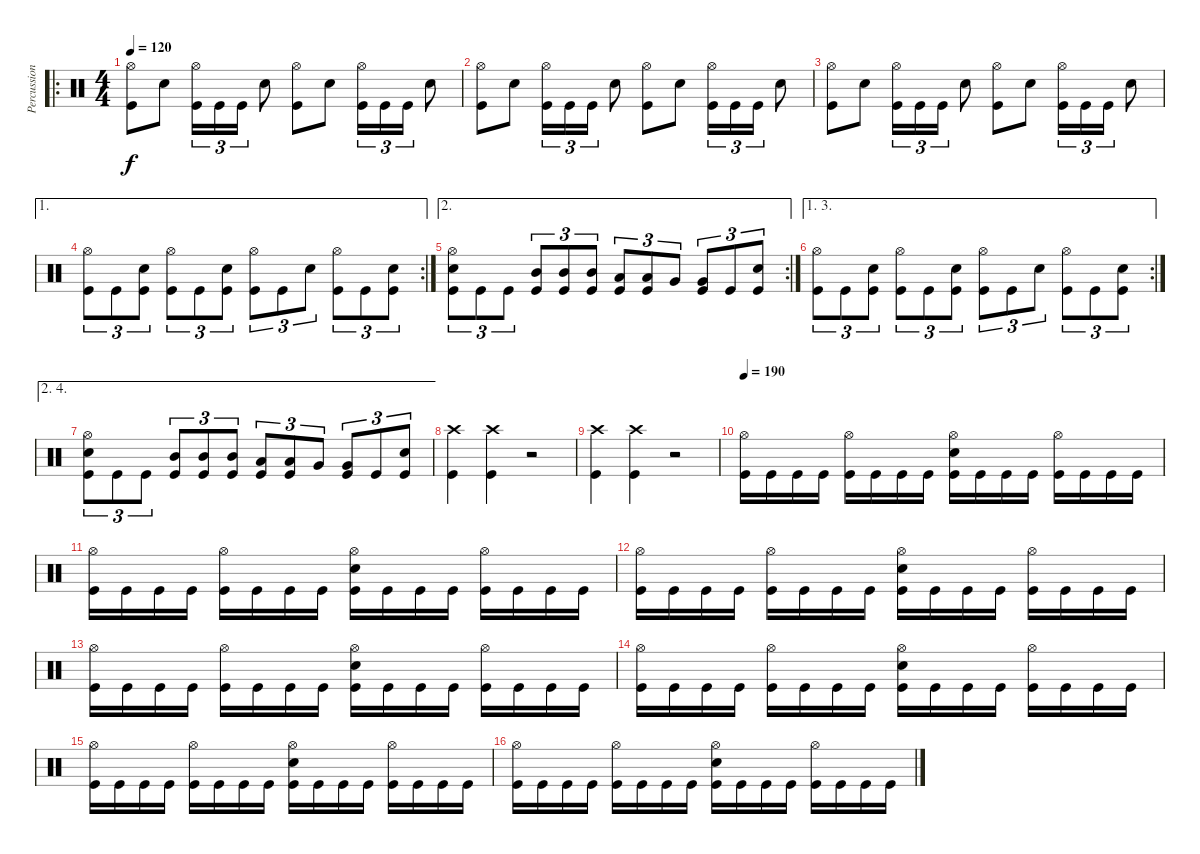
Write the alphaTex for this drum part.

\track ("Percussioni" "Percussion") {instrument percussion}
\staff {score}
\articulation defaults
\ro
\ts (4 4)
\tempo 120
\tempo 280
\tempo 120
\clef neutral
\ks c
("Hi-Hat (open)" "Kick (hit)").8{dy f} "Electric Snare (hit)".8 ("Hi-Hat (open)" "Kick (hit)").16{tu (3 2)} "Kick (hit)".16{tu (3 2)} "Kick (hit)".16{tu (3 2)} "Electric Snare (hit)".8 ("Hi-Hat (open)" "Kick (hit)").8 "Electric Snare (hit)".8 ("Hi-Hat (open)" "Kick (hit)").16{tu (3 2)} "Kick (hit)".16{tu (3 2)} "Kick (hit)".16{tu (3 2)} "Electric Snare (hit)".8 |
("Hi-Hat (open)" "Kick (hit)").8 "Electric Snare (hit)".8 ("Hi-Hat (open)" "Kick (hit)").16{tu (3 2)} "Kick (hit)".16{tu (3 2)} "Kick (hit)".16{tu (3 2)} "Electric Snare (hit)".8 ("Hi-Hat (open)" "Kick (hit)").8 "Electric Snare (hit)".8 ("Hi-Hat (open)" "Kick (hit)").16{tu (3 2)} "Kick (hit)".16{tu (3 2)} "Kick (hit)".16{tu (3 2)} "Electric Snare (hit)".8 |
("Hi-Hat (open)" "Kick (hit)").8 "Electric Snare (hit)".8 ("Hi-Hat (open)" "Kick (hit)").16{tu (3 2)} "Kick (hit)".16{tu (3 2)} "Kick (hit)".16{tu (3 2)} "Electric Snare (hit)".8 ("Hi-Hat (open)" "Kick (hit)").8 "Electric Snare (hit)".8 ("Hi-Hat (open)" "Kick (hit)").16{tu (3 2)} "Kick (hit)".16{tu (3 2)} "Kick (hit)".16{tu (3 2)} "Electric Snare (hit)".8 |
\ae 1
\rc 2
("Hi-Hat (open)" "Kick (hit)").8{tu (3 2)} "Kick (hit)".8{tu (3 2)} ("Electric Snare (hit)" "Kick (hit)").8{tu (3 2)} ("Hi-Hat (open)" "Kick (hit)").8{tu (3 2)} "Kick (hit)".8{tu (3 2)} ("Electric Snare (hit)" "Kick (hit)").8{tu (3 2)} ("Hi-Hat (open)" "Kick (hit)").8{tu (3 2)} "Kick (hit)".8{tu (3 2)} "Electric Snare (hit)".8{tu (3 2)} ("Hi-Hat (open)" "Kick (hit)").8{tu (3 2)} "Kick (hit)".8{tu (3 2)} ("Electric Snare (hit)" "Kick (hit)").8{tu (3 2)} |
\ae 2
\rc 2
("Hi-Hat (open)" "Electric Snare (hit)" "Kick (hit)").8{tu (3 2)} "Kick (hit)".8{tu (3 2)} "Kick (hit)".8{tu (3 2)} ("Mid Tom (hit)" "Kick (hit)").8{tu (3 2)} ("Mid Tom (hit)" "Kick (hit)").8{tu (3 2)} ("Mid Tom (hit)" "Kick (hit)").8{tu (3 2)} ("Low Tom (hit)" "Kick (hit)").8{tu (3 2)} ("Low Tom (hit)" "Kick (hit)").8{tu (3 2)} "Very Low Tom (hit)".8{tu (3 2)} ("Very Low Tom (hit)" "Kick (hit)").8{tu (3 2)} "Kick (hit)".8{tu (3 2)} ("Electric Snare (hit)" "Kick (hit)").8{tu (3 2)} |
\ae (1 3)
\rc 2
("Hi-Hat (open)" "Kick (hit)").8{tu (3 2)} "Kick (hit)".8{tu (3 2)} ("Electric Snare (hit)" "Kick (hit)").8{tu (3 2)} ("Hi-Hat (open)" "Kick (hit)").8{tu (3 2)} "Kick (hit)".8{tu (3 2)} ("Electric Snare (hit)" "Kick (hit)").8{tu (3 2)} ("Hi-Hat (open)" "Kick (hit)").8{tu (3 2)} "Kick (hit)".8{tu (3 2)} "Electric Snare (hit)".8{tu (3 2)} ("Hi-Hat (open)" "Kick (hit)").8{tu (3 2)} "Kick (hit)".8{tu (3 2)} ("Electric Snare (hit)" "Kick (hit)").8{tu (3 2)} |
\ae (2 4)
("Hi-Hat (open)" "Electric Snare (hit)" "Kick (hit)").8{tu (3 2)} "Kick (hit)".8{tu (3 2)} "Kick (hit)".8{tu (3 2)} ("Mid Tom (hit)" "Kick (hit)").8{tu (3 2)} ("Mid Tom (hit)" "Kick (hit)").8{tu (3 2)} ("Mid Tom (hit)" "Kick (hit)").8{tu (3 2)} ("Low Tom (hit)" "Kick (hit)").8{tu (3 2)} ("Low Tom (hit)" "Kick (hit)").8{tu (3 2)} "Very Low Tom (hit)".8{tu (3 2)} ("Very Low Tom (hit)" "Kick (hit)").8{tu (3 2)} "Kick (hit)".8{tu (3 2)} ("Electric Snare (hit)" "Kick (hit)").8{tu (3 2)} |
("Crash high (hit)" "Kick (hit)").4 ("Crash high (hit)" "Kick (hit)").4 r.2 |
("Crash high (hit)" "Kick (hit)").4 ("Crash high (hit)" "Kick (hit)").4 r.2 |
\tempo 190
("Hi-Hat (open)" "Kick (hit)").16 "Kick (hit)".16 "Kick (hit)".16 "Kick (hit)".16 ("Hi-Hat (open)" "Kick (hit)").16 "Kick (hit)".16 "Kick (hit)".16 "Kick (hit)".16 ("Hi-Hat (open)" "Electric Snare (hit)" "Kick (hit)").16 "Kick (hit)".16 "Kick (hit)".16 "Kick (hit)".16 ("Hi-Hat (open)" "Kick (hit)").16 "Kick (hit)".16 "Kick (hit)".16 "Kick (hit)".16 |
("Hi-Hat (open)" "Kick (hit)").16 "Kick (hit)".16 "Kick (hit)".16 "Kick (hit)".16 ("Hi-Hat (open)" "Kick (hit)").16 "Kick (hit)".16 "Kick (hit)".16 "Kick (hit)".16 ("Hi-Hat (open)" "Electric Snare (hit)" "Kick (hit)").16 "Kick (hit)".16 "Kick (hit)".16 "Kick (hit)".16 ("Hi-Hat (open)" "Kick (hit)").16 "Kick (hit)".16 "Kick (hit)".16 "Kick (hit)".16 |
("Hi-Hat (open)" "Kick (hit)").16 "Kick (hit)".16 "Kick (hit)".16 "Kick (hit)".16 ("Hi-Hat (open)" "Kick (hit)").16 "Kick (hit)".16 "Kick (hit)".16 "Kick (hit)".16 ("Hi-Hat (open)" "Electric Snare (hit)" "Kick (hit)").16 "Kick (hit)".16 "Kick (hit)".16 "Kick (hit)".16 ("Hi-Hat (open)" "Kick (hit)").16 "Kick (hit)".16 "Kick (hit)".16 "Kick (hit)".16 |
("Hi-Hat (open)" "Kick (hit)").16 "Kick (hit)".16 "Kick (hit)".16 "Kick (hit)".16 ("Hi-Hat (open)" "Kick (hit)").16 "Kick (hit)".16 "Kick (hit)".16 "Kick (hit)".16 ("Hi-Hat (open)" "Electric Snare (hit)" "Kick (hit)").16 "Kick (hit)".16 "Kick (hit)".16 "Kick (hit)".16 ("Hi-Hat (open)" "Kick (hit)").16 "Kick (hit)".16 "Kick (hit)".16 "Kick (hit)".16 |
("Hi-Hat (open)" "Kick (hit)").16 "Kick (hit)".16 "Kick (hit)".16 "Kick (hit)".16 ("Hi-Hat (open)" "Kick (hit)").16 "Kick (hit)".16 "Kick (hit)".16 "Kick (hit)".16 ("Hi-Hat (open)" "Electric Snare (hit)" "Kick (hit)").16 "Kick (hit)".16 "Kick (hit)".16 "Kick (hit)".16 ("Hi-Hat (open)" "Kick (hit)").16 "Kick (hit)".16 "Kick (hit)".16 "Kick (hit)".16 |
("Hi-Hat (open)" "Kick (hit)").16 "Kick (hit)".16 "Kick (hit)".16 "Kick (hit)".16 ("Hi-Hat (open)" "Kick (hit)").16 "Kick (hit)".16 "Kick (hit)".16 "Kick (hit)".16 ("Hi-Hat (open)" "Electric Snare (hit)" "Kick (hit)").16 "Kick (hit)".16 "Kick (hit)".16 "Kick (hit)".16 ("Hi-Hat (open)" "Kick (hit)").16 "Kick (hit)".16 "Kick (hit)".16 "Kick (hit)".16 |
("Hi-Hat (open)" "Kick (hit)").16 "Kick (hit)".16 "Kick (hit)".16 "Kick (hit)".16 ("Hi-Hat (open)" "Kick (hit)").16 "Kick (hit)".16 "Kick (hit)".16 "Kick (hit)".16 ("Hi-Hat (open)" "Electric Snare (hit)" "Kick (hit)").16 "Kick (hit)".16 "Kick (hit)".16 "Kick (hit)".16 ("Hi-Hat (open)" "Kick (hit)").16 "Kick (hit)".16 "Kick (hit)".16 "Kick (hit)".16
